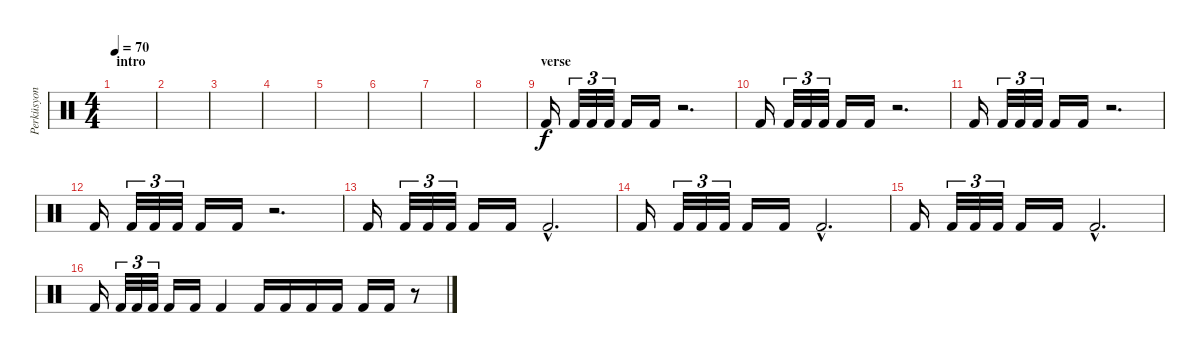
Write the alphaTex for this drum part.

\track ("Perküsyon" "Perküsyon") {instrument percussion}
\staff {score}
\articulation defaults
\ts (4 4)
\section ("" "intro")
\tempo 70
\clef neutral
\ks c
|
|
|
|
|
|
|
|
\section ("" "verse")
"Kick (hit) 2".16 "Kick (hit) 2".32{tu (3 2)} "Kick (hit) 2".32{tu (3 2)} "Kick (hit) 2".32{tu (3 2)} "Kick (hit) 2".16 "Kick (hit) 2".16 r.2{d} |
"Kick (hit) 2".16 "Kick (hit) 2".32{tu (3 2)} "Kick (hit) 2".32{tu (3 2)} "Kick (hit) 2".32{tu (3 2)} "Kick (hit) 2".16 "Kick (hit) 2".16 r.2{d} |
"Kick (hit) 2".16 "Kick (hit) 2".32{tu (3 2)} "Kick (hit) 2".32{tu (3 2)} "Kick (hit) 2".32{tu (3 2)} "Kick (hit) 2".16 "Kick (hit) 2".16 r.2{d} |
"Kick (hit) 2".16 "Kick (hit) 2".32{tu (3 2)} "Kick (hit) 2".32{tu (3 2)} "Kick (hit) 2".32{tu (3 2)} "Kick (hit) 2".16 "Kick (hit) 2".16 r.2{d} |
"Kick (hit) 2".16 "Kick (hit) 2".32{tu (3 2)} "Kick (hit) 2".32{tu (3 2)} "Kick (hit) 2".32{tu (3 2)} "Kick (hit) 2".16 "Kick (hit) 2".16 "Kick (hit) 2"{hac}.2{d} |
"Kick (hit) 2".16 "Kick (hit) 2".32{tu (3 2)} "Kick (hit) 2".32{tu (3 2)} "Kick (hit) 2".32{tu (3 2)} "Kick (hit) 2".16 "Kick (hit) 2".16 "Kick (hit) 2"{hac}.2{d} |
"Kick (hit) 2".16 "Kick (hit) 2".32{tu (3 2)} "Kick (hit) 2".32{tu (3 2)} "Kick (hit) 2".32{tu (3 2)} "Kick (hit) 2".16 "Kick (hit) 2".16 "Kick (hit) 2"{hac}.2{d} |
"Kick (hit) 2".16 "Kick (hit) 2".32{tu (3 2)} "Kick (hit) 2".32{tu (3 2)} "Kick (hit) 2".32{tu (3 2)} "Kick (hit) 2".16 "Kick (hit) 2".16 "Kick (hit) 2".4 "Kick (hit) 2".16 "Kick (hit) 2".16 "Kick (hit) 2".16 "Kick (hit) 2".16 "Kick (hit) 2".16 "Kick (hit) 2".16 r.8
